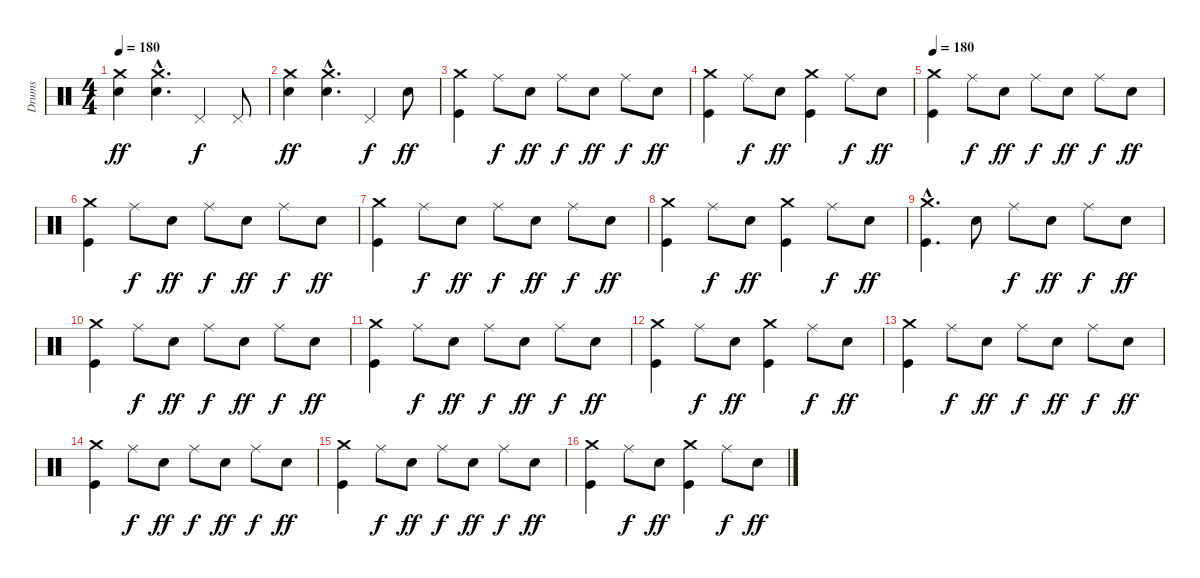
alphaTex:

\track ("Drums" "Drums") {instrument percussion}
\staff {score}
\articulation defaults
\ts (4 4)
\tempo 180
\clef neutral
\ks c
("Crash medium (hit)" "Electric Snare (hit)").4{dy ff} ("Crash medium (hit)"{hac} "Electric Snare (hit)"{hac}).4{d} "Pedal Hi-Hat (hit)".4{dy f} "Pedal Hi-Hat (hit)".8 |
("Crash medium (hit)" "Electric Snare (hit)").4{dy ff} ("Crash medium (hit)"{hac} "Electric Snare (hit)"{hac}).4{d} "Pedal Hi-Hat (hit)".4{dy f} "Electric Snare (hit)".8{dy ff} |
("Crash medium (hit)" "Kick (hit)").4 "Ride (middle)".8{dy f} "Electric Snare (hit)".8{dy ff} "Ride (middle)".8{dy f} "Electric Snare (hit)".8{dy ff} "Ride (middle)".8{dy f} "Electric Snare (hit)".8{dy ff} |
("Crash medium (hit)" "Kick (hit)").4 "Ride (middle)".8{dy f} "Electric Snare (hit)".8{dy ff} ("Crash medium (hit)" "Kick (hit)").4 "Ride (middle)".8{dy f} "Electric Snare (hit)".8{dy ff} |
\tempo 180
("Crash medium (hit)" "Kick (hit)").4 "Ride (middle)".8{dy f} "Electric Snare (hit)".8{dy ff} "Ride (middle)".8{dy f} "Electric Snare (hit)".8{dy ff} "Ride (middle)".8{dy f} "Electric Snare (hit)".8{dy ff} |
("Crash medium (hit)" "Kick (hit)").4 "Ride (middle)".8{dy f} "Electric Snare (hit)".8{dy ff} "Ride (middle)".8{dy f} "Electric Snare (hit)".8{dy ff} "Ride (middle)".8{dy f} "Electric Snare (hit)".8{dy ff} |
("Crash medium (hit)" "Kick (hit)").4 "Ride (middle)".8{dy f} "Electric Snare (hit)".8{dy ff} "Ride (middle)".8{dy f} "Electric Snare (hit)".8{dy ff} "Ride (middle)".8{dy f} "Electric Snare (hit)".8{dy ff} |
("Crash medium (hit)" "Kick (hit)").4 "Ride (middle)".8{dy f} "Electric Snare (hit)".8{dy ff} ("Crash medium (hit)" "Kick (hit)").4 "Ride (middle)".8{dy f} "Electric Snare (hit)".8{dy ff} |
("Crash medium (hit)"{hac} "Kick (hit)"{hac}).4{d} "Electric Snare (hit)".8 "Ride (middle)".8{dy f} "Electric Snare (hit)".8{dy ff} "Ride (middle)".8{dy f} "Electric Snare (hit)".8{dy ff} |
("Crash medium (hit)" "Kick (hit)").4 "Ride (middle)".8{dy f} "Electric Snare (hit)".8{dy ff} "Ride (middle)".8{dy f} "Electric Snare (hit)".8{dy ff} "Ride (middle)".8{dy f} "Electric Snare (hit)".8{dy ff} |
("Crash medium (hit)" "Kick (hit)").4 "Ride (middle)".8{dy f} "Electric Snare (hit)".8{dy ff} "Ride (middle)".8{dy f} "Electric Snare (hit)".8{dy ff} "Ride (middle)".8{dy f} "Electric Snare (hit)".8{dy ff} |
("Crash medium (hit)" "Kick (hit)").4 "Ride (middle)".8{dy f} "Electric Snare (hit)".8{dy ff} ("Crash medium (hit)" "Kick (hit)").4 "Ride (middle)".8{dy f} "Electric Snare (hit)".8{dy ff} |
("Crash medium (hit)" "Kick (hit)").4 "Ride (middle)".8{dy f} "Electric Snare (hit)".8{dy ff} "Ride (middle)".8{dy f} "Electric Snare (hit)".8{dy ff} "Ride (middle)".8{dy f} "Electric Snare (hit)".8{dy ff} |
("Crash medium (hit)" "Kick (hit)").4 "Ride (middle)".8{dy f} "Electric Snare (hit)".8{dy ff} "Ride (middle)".8{dy f} "Electric Snare (hit)".8{dy ff} "Ride (middle)".8{dy f} "Electric Snare (hit)".8{dy ff} |
("Crash medium (hit)" "Kick (hit)").4 "Ride (middle)".8{dy f} "Electric Snare (hit)".8{dy ff} "Ride (middle)".8{dy f} "Electric Snare (hit)".8{dy ff} "Ride (middle)".8{dy f} "Electric Snare (hit)".8{dy ff} |
("Crash medium (hit)" "Kick (hit)").4 "Ride (middle)".8{dy f} "Electric Snare (hit)".8{dy ff} ("Crash medium (hit)" "Kick (hit)").4 "Ride (middle)".8{dy f} "Electric Snare (hit)".8{dy ff}
